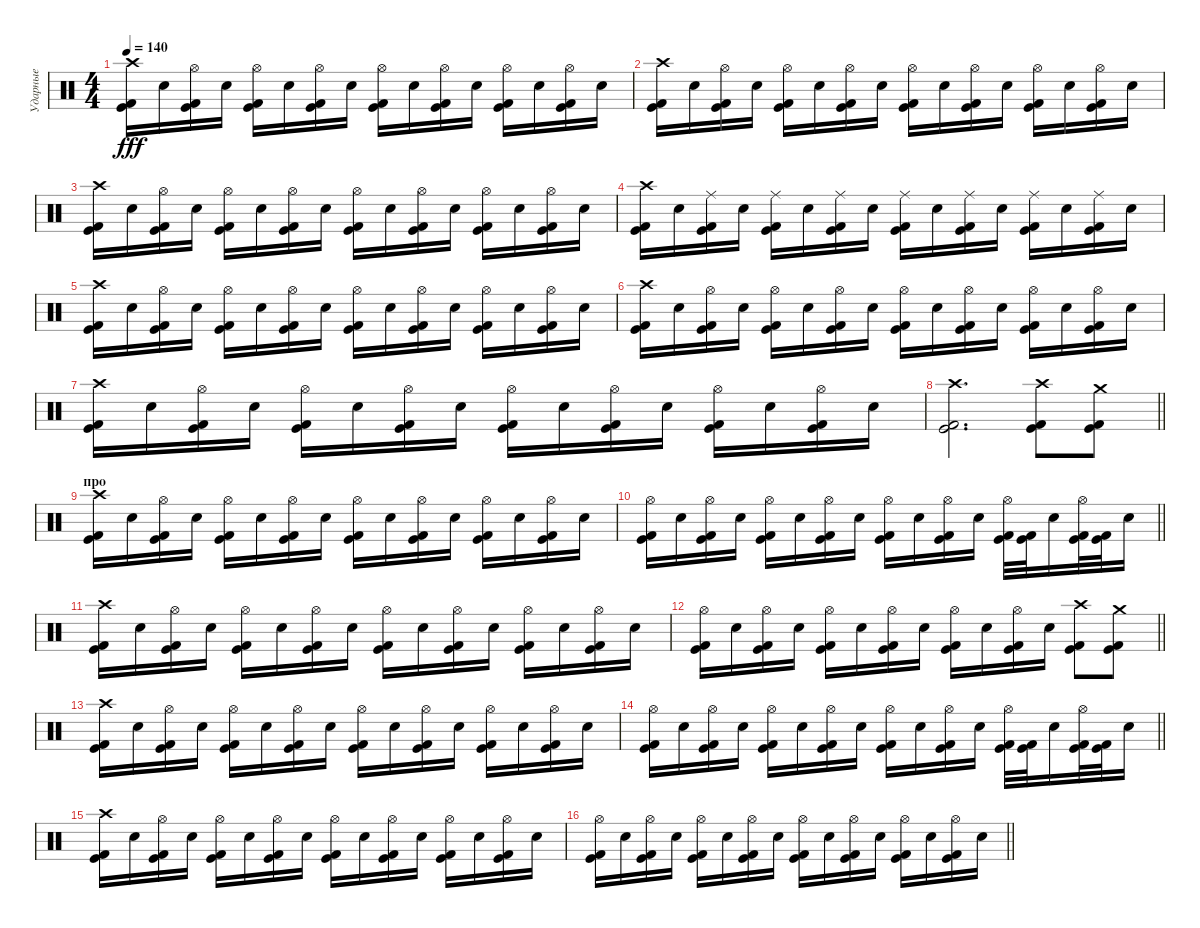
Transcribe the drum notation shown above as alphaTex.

\track ("Ударные" "Ударные") {instrument percussion}
\staff {score}
\articulation defaults
\ts (4 4)
\tempo 140
\clef neutral
\ks c
("Kick (hit)" "Kick (hit) 2" "Crash high (hit)").16{dy fff} "Electric Snare (hit)".16 ("Kick (hit)" "Kick (hit) 2" "Hi-Hat (open)").16 "Electric Snare (hit)".16 ("Kick (hit)" "Kick (hit) 2" "Hi-Hat (open)").16 "Electric Snare (hit)".16 ("Kick (hit)" "Kick (hit) 2" "Hi-Hat (open)").16 "Electric Snare (hit)".16 ("Kick (hit)" "Kick (hit) 2" "Hi-Hat (open)").16 "Electric Snare (hit)".16 ("Kick (hit)" "Kick (hit) 2" "Hi-Hat (open)").16 "Electric Snare (hit)".16 ("Kick (hit)" "Kick (hit) 2" "Hi-Hat (open)").16 "Electric Snare (hit)".16 ("Kick (hit)" "Kick (hit) 2" "Hi-Hat (open)").16 "Electric Snare (hit)".16 |
("Kick (hit)" "Kick (hit) 2" "Crash high (hit)").16 "Electric Snare (hit)".16 ("Kick (hit)" "Kick (hit) 2" "Hi-Hat (open)").16 "Electric Snare (hit)".16 ("Kick (hit)" "Kick (hit) 2" "Hi-Hat (open)").16 "Electric Snare (hit)".16 ("Kick (hit)" "Kick (hit) 2" "Hi-Hat (open)").16 "Electric Snare (hit)".16 ("Kick (hit)" "Kick (hit) 2" "Hi-Hat (open)").16 "Electric Snare (hit)".16 ("Kick (hit)" "Kick (hit) 2" "Hi-Hat (open)").16 "Electric Snare (hit)".16 ("Kick (hit)" "Kick (hit) 2" "Hi-Hat (open)").16 "Electric Snare (hit)".16 ("Kick (hit)" "Kick (hit) 2" "Hi-Hat (open)").16 "Electric Snare (hit)".16 |
("Kick (hit)" "Kick (hit) 2" "Crash high (hit)").16 "Electric Snare (hit)".16 ("Kick (hit)" "Kick (hit) 2" "Hi-Hat (open)").16 "Electric Snare (hit)".16 ("Kick (hit)" "Kick (hit) 2" "Hi-Hat (open)").16 "Electric Snare (hit)".16 ("Kick (hit)" "Kick (hit) 2" "Hi-Hat (open)").16 "Electric Snare (hit)".16 ("Kick (hit)" "Kick (hit) 2" "Hi-Hat (open)").16 "Electric Snare (hit)".16 ("Kick (hit)" "Kick (hit) 2" "Hi-Hat (open)").16 "Electric Snare (hit)".16 ("Kick (hit)" "Kick (hit) 2" "Hi-Hat (open)").16 "Electric Snare (hit)".16 ("Kick (hit)" "Kick (hit) 2" "Hi-Hat (open)").16 "Electric Snare (hit)".16 |
("Kick (hit)" "Kick (hit) 2" "Crash high (hit)").16 "Electric Snare (hit)".16 ("Kick (hit)" "Kick (hit) 2" "Ride (middle)").16 "Electric Snare (hit)".16 ("Kick (hit)" "Kick (hit) 2" "Ride (middle)").16 "Electric Snare (hit)".16 ("Kick (hit)" "Kick (hit) 2" "Ride (middle)").16 "Electric Snare (hit)".16 ("Kick (hit)" "Kick (hit) 2" "Ride (middle)").16 "Electric Snare (hit)".16 ("Kick (hit)" "Kick (hit) 2" "Ride (middle)").16 "Electric Snare (hit)".16 ("Kick (hit)" "Kick (hit) 2" "Ride (middle)").16 "Electric Snare (hit)".16 ("Kick (hit)" "Kick (hit) 2" "Ride (middle)").16 "Electric Snare (hit)".16 |
("Kick (hit)" "Kick (hit) 2" "Crash high (hit)").16 "Electric Snare (hit)".16 ("Kick (hit)" "Kick (hit) 2" "Hi-Hat (open)").16 "Electric Snare (hit)".16 ("Kick (hit)" "Kick (hit) 2" "Hi-Hat (open)").16 "Electric Snare (hit)".16 ("Kick (hit)" "Kick (hit) 2" "Hi-Hat (open)").16 "Electric Snare (hit)".16 ("Kick (hit)" "Kick (hit) 2" "Hi-Hat (open)").16 "Electric Snare (hit)".16 ("Kick (hit)" "Kick (hit) 2" "Hi-Hat (open)").16 "Electric Snare (hit)".16 ("Kick (hit)" "Kick (hit) 2" "Hi-Hat (open)").16 "Electric Snare (hit)".16 ("Kick (hit)" "Kick (hit) 2" "Hi-Hat (open)").16 "Electric Snare (hit)".16 |
("Kick (hit)" "Kick (hit) 2" "Crash high (hit)").16 "Electric Snare (hit)".16 ("Kick (hit)" "Kick (hit) 2" "Hi-Hat (open)").16 "Electric Snare (hit)".16 ("Kick (hit)" "Kick (hit) 2" "Hi-Hat (open)").16 "Electric Snare (hit)".16 ("Kick (hit)" "Kick (hit) 2" "Hi-Hat (open)").16 "Electric Snare (hit)".16 ("Kick (hit)" "Kick (hit) 2" "Hi-Hat (open)").16 "Electric Snare (hit)".16 ("Kick (hit)" "Kick (hit) 2" "Hi-Hat (open)").16 "Electric Snare (hit)".16 ("Kick (hit)" "Kick (hit) 2" "Hi-Hat (open)").16 "Electric Snare (hit)".16 ("Kick (hit)" "Kick (hit) 2" "Hi-Hat (open)").16 "Electric Snare (hit)".16 |
("Kick (hit)" "Kick (hit) 2" "Crash high (hit)").16 "Electric Snare (hit)".16 ("Kick (hit)" "Kick (hit) 2" "Hi-Hat (open)").16 "Electric Snare (hit)".16 ("Kick (hit)" "Kick (hit) 2" "Hi-Hat (open)").16 "Electric Snare (hit)".16 ("Kick (hit)" "Kick (hit) 2" "Hi-Hat (open)").16 "Electric Snare (hit)".16 ("Kick (hit)" "Kick (hit) 2" "Hi-Hat (open)").16 "Electric Snare (hit)".16 ("Kick (hit)" "Kick (hit) 2" "Hi-Hat (open)").16 "Electric Snare (hit)".16 ("Kick (hit)" "Kick (hit) 2" "Hi-Hat (open)").16 "Electric Snare (hit)".16 ("Kick (hit)" "Kick (hit) 2" "Hi-Hat (open)").16 "Electric Snare (hit)".16 |
\barLineRight lightlight
("Kick (hit)" "Kick (hit) 2" "Crash high (hit)").2{d} ("Kick (hit)" "Kick (hit) 2" "Crash high (hit)").8 ("Kick (hit) 2" "Kick (hit)" "Crash medium (hit)").8 |
\section ("" "про")
("Kick (hit)" "Kick (hit) 2" "Crash high (hit)").16 "Electric Snare (hit)".16 ("Kick (hit)" "Kick (hit) 2" "Hi-Hat (open)").16 "Electric Snare (hit)".16 ("Kick (hit)" "Kick (hit) 2" "Hi-Hat (open)").16 "Electric Snare (hit)".16 ("Kick (hit)" "Kick (hit) 2" "Hi-Hat (open)").16 "Electric Snare (hit)".16 ("Kick (hit)" "Kick (hit) 2" "Hi-Hat (open)").16 "Electric Snare (hit)".16 ("Kick (hit)" "Kick (hit) 2" "Hi-Hat (open)").16 "Electric Snare (hit)".16 ("Kick (hit)" "Kick (hit) 2" "Hi-Hat (open)").16 "Electric Snare (hit)".16 ("Kick (hit)" "Kick (hit) 2" "Hi-Hat (open)").16 "Electric Snare (hit)".16 |
\barLineRight lightlight
("Kick (hit)" "Kick (hit) 2" "Hi-Hat (open)").16 "Electric Snare (hit)".16 ("Kick (hit)" "Kick (hit) 2" "Hi-Hat (open)").16 "Electric Snare (hit)".16 ("Kick (hit)" "Kick (hit) 2" "Hi-Hat (open)").16 "Electric Snare (hit)".16 ("Kick (hit)" "Kick (hit) 2" "Hi-Hat (open)").16 "Electric Snare (hit)".16 ("Kick (hit)" "Kick (hit) 2" "Hi-Hat (open)").16 "Electric Snare (hit)".16 ("Kick (hit)" "Kick (hit) 2" "Hi-Hat (open)").16 "Electric Snare (hit)".16 ("Kick (hit)" "Kick (hit) 2" "Hi-Hat (open)").32 ("Kick (hit)" "Kick (hit) 2").32 "Electric Snare (hit)".16 ("Kick (hit)" "Kick (hit) 2" "Hi-Hat (open)").32 ("Kick (hit)" "Kick (hit) 2").32 "Electric Snare (hit)".16 |
("Kick (hit)" "Kick (hit) 2" "Crash high (hit)").16 "Electric Snare (hit)".16 ("Kick (hit)" "Kick (hit) 2" "Hi-Hat (open)").16 "Electric Snare (hit)".16 ("Kick (hit)" "Kick (hit) 2" "Hi-Hat (open)").16 "Electric Snare (hit)".16 ("Kick (hit)" "Kick (hit) 2" "Hi-Hat (open)").16 "Electric Snare (hit)".16 ("Kick (hit)" "Kick (hit) 2" "Hi-Hat (open)").16 "Electric Snare (hit)".16 ("Kick (hit)" "Kick (hit) 2" "Hi-Hat (open)").16 "Electric Snare (hit)".16 ("Kick (hit)" "Kick (hit) 2" "Hi-Hat (open)").16 "Electric Snare (hit)".16 ("Kick (hit)" "Kick (hit) 2" "Hi-Hat (open)").16 "Electric Snare (hit)".16 |
\barLineRight lightlight
("Kick (hit)" "Kick (hit) 2" "Hi-Hat (open)").16 "Electric Snare (hit)".16 ("Kick (hit)" "Kick (hit) 2" "Hi-Hat (open)").16 "Electric Snare (hit)".16 ("Kick (hit)" "Kick (hit) 2" "Hi-Hat (open)").16 "Electric Snare (hit)".16 ("Kick (hit)" "Kick (hit) 2" "Hi-Hat (open)").16 "Electric Snare (hit)".16 ("Kick (hit)" "Kick (hit) 2" "Hi-Hat (open)").16 "Electric Snare (hit)".16 ("Kick (hit)" "Kick (hit) 2" "Hi-Hat (open)").16 "Electric Snare (hit)".16 ("Kick (hit)" "Kick (hit) 2" "Crash high (hit)").8 ("Kick (hit) 2" "Kick (hit)" "Crash medium (hit)").8 |
("Kick (hit)" "Kick (hit) 2" "Crash high (hit)").16 "Electric Snare (hit)".16 ("Kick (hit)" "Kick (hit) 2" "Hi-Hat (open)").16 "Electric Snare (hit)".16 ("Kick (hit)" "Kick (hit) 2" "Hi-Hat (open)").16 "Electric Snare (hit)".16 ("Kick (hit)" "Kick (hit) 2" "Hi-Hat (open)").16 "Electric Snare (hit)".16 ("Kick (hit)" "Kick (hit) 2" "Hi-Hat (open)").16 "Electric Snare (hit)".16 ("Kick (hit)" "Kick (hit) 2" "Hi-Hat (open)").16 "Electric Snare (hit)".16 ("Kick (hit)" "Kick (hit) 2" "Hi-Hat (open)").16 "Electric Snare (hit)".16 ("Kick (hit)" "Kick (hit) 2" "Hi-Hat (open)").16 "Electric Snare (hit)".16 |
\barLineRight lightlight
("Kick (hit)" "Kick (hit) 2" "Hi-Hat (open)").16 "Electric Snare (hit)".16 ("Kick (hit)" "Kick (hit) 2" "Hi-Hat (open)").16 "Electric Snare (hit)".16 ("Kick (hit)" "Kick (hit) 2" "Hi-Hat (open)").16 "Electric Snare (hit)".16 ("Kick (hit)" "Kick (hit) 2" "Hi-Hat (open)").16 "Electric Snare (hit)".16 ("Kick (hit)" "Kick (hit) 2" "Hi-Hat (open)").16 "Electric Snare (hit)".16 ("Kick (hit)" "Kick (hit) 2" "Hi-Hat (open)").16 "Electric Snare (hit)".16 ("Kick (hit)" "Kick (hit) 2" "Hi-Hat (open)").32 ("Kick (hit)" "Kick (hit) 2").32 "Electric Snare (hit)".16 ("Kick (hit)" "Kick (hit) 2" "Hi-Hat (open)").32 ("Kick (hit)" "Kick (hit) 2").32 "Electric Snare (hit)".16 |
("Kick (hit)" "Kick (hit) 2" "Crash high (hit)").16 "Electric Snare (hit)".16 ("Kick (hit)" "Kick (hit) 2" "Hi-Hat (open)").16 "Electric Snare (hit)".16 ("Kick (hit)" "Kick (hit) 2" "Hi-Hat (open)").16 "Electric Snare (hit)".16 ("Kick (hit)" "Kick (hit) 2" "Hi-Hat (open)").16 "Electric Snare (hit)".16 ("Kick (hit)" "Kick (hit) 2" "Hi-Hat (open)").16 "Electric Snare (hit)".16 ("Kick (hit)" "Kick (hit) 2" "Hi-Hat (open)").16 "Electric Snare (hit)".16 ("Kick (hit)" "Kick (hit) 2" "Hi-Hat (open)").16 "Electric Snare (hit)".16 ("Kick (hit)" "Kick (hit) 2" "Hi-Hat (open)").16 "Electric Snare (hit)".16 |
\barLineRight lightlight
("Kick (hit)" "Kick (hit) 2" "Hi-Hat (open)").16 "Electric Snare (hit)".16 ("Kick (hit)" "Kick (hit) 2" "Hi-Hat (open)").16 "Electric Snare (hit)".16 ("Kick (hit)" "Kick (hit) 2" "Hi-Hat (open)").16 "Electric Snare (hit)".16 ("Kick (hit)" "Kick (hit) 2" "Hi-Hat (open)").16 "Electric Snare (hit)".16 ("Kick (hit)" "Kick (hit) 2" "Hi-Hat (open)").16 "Electric Snare (hit)".16 ("Kick (hit)" "Kick (hit) 2" "Hi-Hat (open)").16 "Electric Snare (hit)".16 ("Kick (hit)" "Kick (hit) 2" "Hi-Hat (open)").16 "Electric Snare (hit)".16 ("Kick (hit)" "Kick (hit) 2" "Hi-Hat (open)").16 "Electric Snare (hit)".16
